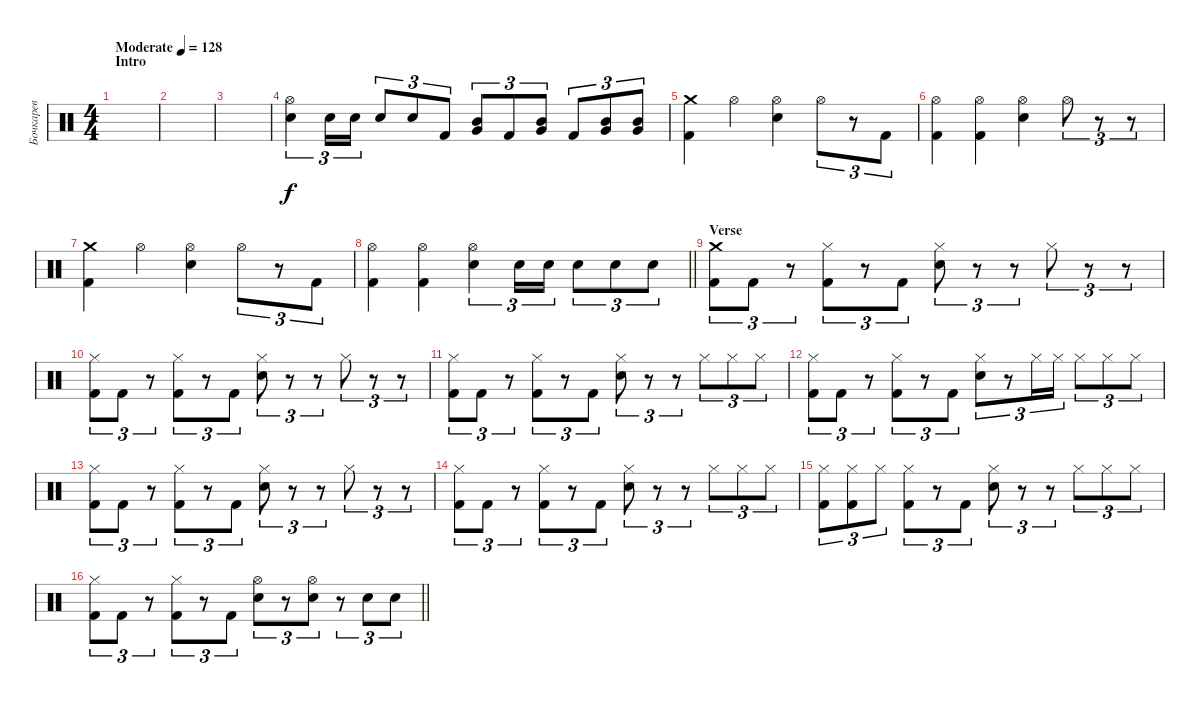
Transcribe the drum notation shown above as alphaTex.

\track ("Бочкарев" "Бочкарев") {instrument percussion}
\staff
\articulation defaults
\ts (4 4)
\section ("" "Intro")
\tempo (128 "Moderate")
\clef neutral
\ks c
|
|
|
("Hi-Hat (open)" "Electric Snare (hit)").4{tu (3 2)} "Electric Snare (hit)".16{tu (3 2)} "Electric Snare (hit)".16{tu (3 2)} "Electric Snare (hit)".8{tu (3 2)} "Electric Snare (hit)".8{tu (3 2)} "Kick (hit) 2".8{tu (3 2)} ("Very Low Tom (hit)" "Mid Tom (hit)").8{tu (3 2)} "Kick (hit) 2".8{tu (3 2)} ("Very Low Tom (hit)" "Mid Tom (hit)").8{tu (3 2)} "Kick (hit) 2".8{tu (3 2)} ("Very Low Tom (hit)" "Mid Tom (hit)").8{tu (3 2)} ("Very Low Tom (hit)" "Mid Tom (hit)").8{tu (3 2)} |
("Crash medium (hit)" "Kick (hit) 2").4 "Hi-Hat (open)".4 ("Hi-Hat (open)" "Electric Snare (hit)").4 "Hi-Hat (open)".8{tu (3 2)} r.8{tu (3 2)} "Kick (hit) 2".8{tu (3 2)} |
("Hi-Hat (open)" "Kick (hit) 2").4 ("Hi-Hat (open)" "Kick (hit) 2").4 ("Hi-Hat (open)" "Electric Snare (hit)").4 "Hi-Hat (open)".8{tu (3 2)} r.8{tu (3 2)} r.8{tu (3 2)} |
("Crash medium (hit)" "Kick (hit) 2").4 "Hi-Hat (open)".4 ("Hi-Hat (open)" "Electric Snare (hit)").4 "Hi-Hat (open)".8{tu (3 2)} r.8{tu (3 2)} "Kick (hit) 2".8{tu (3 2)} |
\barLineRight lightlight
("Hi-Hat (open)" "Kick (hit) 2").4 ("Hi-Hat (open)" "Kick (hit) 2").4 ("Hi-Hat (open)" "Electric Snare (hit)").4{tu (3 2)} "Electric Snare (hit)".16{tu (3 2)} "Electric Snare (hit)".16{tu (3 2)} "Electric Snare (hit)".8{tu (3 2)} "Electric Snare (hit)".8{tu (3 2)} "Electric Snare (hit)".8{tu (3 2)} |
\section ("" "Verse")
("Crash medium (hit)" "Kick (hit) 2").8{tu (3 2)} "Kick (hit) 2".8{tu (3 2)} r.8{tu (3 2)} ("Hi-Hat (closed)" "Kick (hit) 2").8{tu (3 2)} r.8{tu (3 2)} "Kick (hit) 2".8{tu (3 2)} ("Hi-Hat (closed)" "Electric Snare (hit)").8{tu (3 2)} r.8{tu (3 2)} r.8{tu (3 2)} "Hi-Hat (closed)".8{tu (3 2)} r.8{tu (3 2)} r.8{tu (3 2)} |
("Hi-Hat (closed)" "Kick (hit) 2").8{tu (3 2)} "Kick (hit) 2".8{tu (3 2)} r.8{tu (3 2)} ("Hi-Hat (closed)" "Kick (hit) 2").8{tu (3 2)} r.8{tu (3 2)} "Kick (hit) 2".8{tu (3 2)} ("Hi-Hat (closed)" "Electric Snare (hit)").8{tu (3 2)} r.8{tu (3 2)} r.8{tu (3 2)} "Hi-Hat (closed)".8{tu (3 2)} r.8{tu (3 2)} r.8{tu (3 2)} |
("Hi-Hat (closed)" "Kick (hit) 2").8{tu (3 2)} "Kick (hit) 2".8{tu (3 2)} r.8{tu (3 2)} ("Hi-Hat (closed)" "Kick (hit) 2").8{tu (3 2)} r.8{tu (3 2)} "Kick (hit) 2".8{tu (3 2)} ("Hi-Hat (closed)" "Electric Snare (hit)").8{tu (3 2)} r.8{tu (3 2)} r.8{tu (3 2)} "Hi-Hat (closed)".8{tu (3 2)} "Hi-Hat (closed)".8{tu (3 2)} "Hi-Hat (closed)".8{tu (3 2)} |
("Hi-Hat (closed)" "Kick (hit) 2").8{tu (3 2)} "Kick (hit) 2".8{tu (3 2)} r.8{tu (3 2)} ("Hi-Hat (closed)" "Kick (hit) 2").8{tu (3 2)} r.8{tu (3 2)} "Kick (hit) 2".8{tu (3 2)} ("Hi-Hat (closed)" "Electric Snare (hit)").8{tu (3 2)} r.8{tu (3 2)} "Hi-Hat (closed)".16{tu (3 2)} "Hi-Hat (closed)".16{tu (3 2)} "Hi-Hat (closed)".8{tu (3 2)} "Hi-Hat (closed)".8{tu (3 2)} "Hi-Hat (closed)".8{tu (3 2)} |
("Hi-Hat (closed)" "Kick (hit) 2").8{tu (3 2)} "Kick (hit) 2".8{tu (3 2)} r.8{tu (3 2)} ("Hi-Hat (closed)" "Kick (hit) 2").8{tu (3 2)} r.8{tu (3 2)} "Kick (hit) 2".8{tu (3 2)} ("Hi-Hat (closed)" "Electric Snare (hit)").8{tu (3 2)} r.8{tu (3 2)} r.8{tu (3 2)} "Hi-Hat (closed)".8{tu (3 2)} r.8{tu (3 2)} r.8{tu (3 2)} |
("Hi-Hat (closed)" "Kick (hit) 2").8{tu (3 2)} "Kick (hit) 2".8{tu (3 2)} r.8{tu (3 2)} ("Hi-Hat (closed)" "Kick (hit) 2").8{tu (3 2)} r.8{tu (3 2)} "Kick (hit) 2".8{tu (3 2)} ("Hi-Hat (closed)" "Electric Snare (hit)").8{tu (3 2)} r.8{tu (3 2)} r.8{tu (3 2)} "Hi-Hat (closed)".8{tu (3 2)} "Hi-Hat (closed)".8{tu (3 2)} "Hi-Hat (closed)".8{tu (3 2)} |
("Hi-Hat (closed)" "Kick (hit) 2").8{tu (3 2)} ("Hi-Hat (closed)" "Kick (hit) 2").8{tu (3 2)} "Hi-Hat (closed)".8{tu (3 2)} ("Hi-Hat (closed)" "Kick (hit) 2").8{tu (3 2)} r.8{tu (3 2)} "Kick (hit) 2".8{tu (3 2)} ("Hi-Hat (closed)" "Electric Snare (hit)").8{tu (3 2)} r.8{tu (3 2)} r.8{tu (3 2)} "Hi-Hat (closed)".8{tu (3 2)} "Hi-Hat (closed)".8{tu (3 2)} "Hi-Hat (closed)".8{tu (3 2)} |
\barLineRight lightlight
("Hi-Hat (closed)" "Kick (hit) 2").8{tu (3 2)} "Kick (hit) 2".8{tu (3 2)} r.8{tu (3 2)} ("Hi-Hat (closed)" "Kick (hit) 2").8{tu (3 2)} r.8{tu (3 2)} "Kick (hit) 2".8{tu (3 2)} ("Hi-Hat (open)" "Electric Snare (hit)").8{tu (3 2)} r.8{tu (3 2)} ("Hi-Hat (open)" "Electric Snare (hit)").8{tu (3 2)} r.8{tu (3 2)} "Electric Snare (hit)".8{tu (3 2)} "Electric Snare (hit)".8{tu (3 2)}
